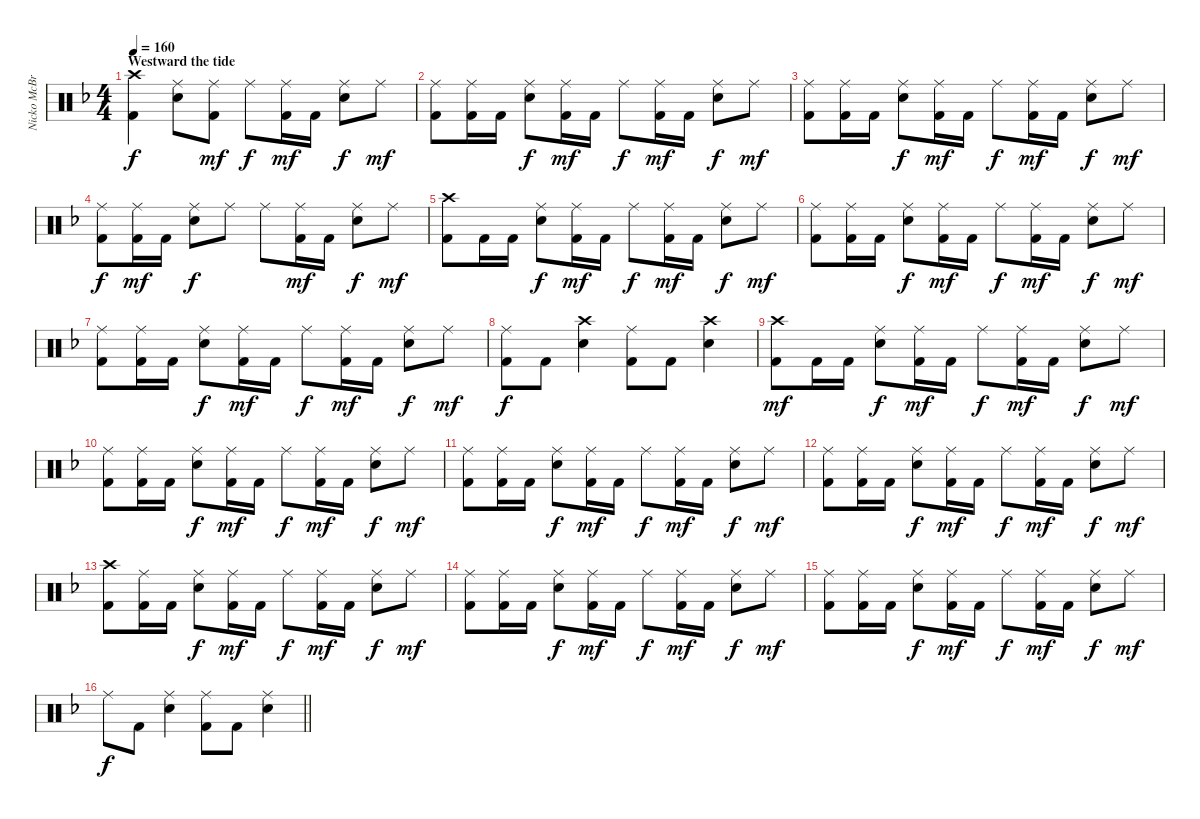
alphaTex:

\track ("Nicko McBrain" "Nicko McBr") {instrument percussion}
\staff {score}
\articulation defaults
\ts (4 4)
\section ("" "Westward the tide")
\tempo 160
\clef neutral
\ks f
("Crash high (hit)" "Kick (hit) 2").4{dy f} ("Ride (middle)" "Electric Snare (hit)").8 ("Ride (middle)" "Kick (hit) 2").8{dy mf} "Ride (middle)".8{dy f} ("Ride (middle)" "Kick (hit) 2").16{dy mf} "Kick (hit) 2".16 ("Ride (middle)" "Electric Snare (hit)").8{dy f} "Ride (middle)".8{dy mf} |
("Ride (middle)" "Kick (hit) 2").8 ("Ride (middle)" "Kick (hit) 2").16 "Kick (hit) 2".16 ("Ride (middle)" "Electric Snare (hit)").8{dy f} ("Ride (middle)" "Kick (hit) 2").16{dy mf} "Kick (hit) 2".16 "Ride (middle)".8{dy f} ("Ride (middle)" "Kick (hit) 2").16{dy mf} "Kick (hit) 2".16 ("Ride (middle)" "Electric Snare (hit)").8{dy f} "Ride (middle)".8{dy mf} |
("Ride (middle)" "Kick (hit) 2").8 ("Ride (middle)" "Kick (hit) 2").16 "Kick (hit) 2".16 ("Ride (middle)" "Electric Snare (hit)").8{dy f} ("Ride (middle)" "Kick (hit) 2").16{dy mf} "Kick (hit) 2".16 "Ride (middle)".8{dy f} ("Ride (middle)" "Kick (hit) 2").16{dy mf} "Kick (hit) 2".16 ("Ride (middle)" "Electric Snare (hit)").8{dy f} "Ride (middle)".8{dy mf} |
("Ride (middle)" "Kick (hit) 2").8{dy f} ("Ride (middle)" "Kick (hit) 2").16{dy mf} "Kick (hit) 2".16 ("Ride (middle)" "Electric Snare (hit)").8{dy f} "Ride (middle)".8 "Ride (middle)".8 ("Ride (middle)" "Kick (hit) 2").16{dy mf} "Kick (hit) 2".16 ("Ride (middle)" "Electric Snare (hit)").8{dy f} "Ride (middle)".8{dy mf} |
("Crash high (hit)" "Kick (hit) 2").8 "Kick (hit) 2".16 "Kick (hit) 2".16 ("Ride (middle)" "Electric Snare (hit)").8{dy f} ("Ride (middle)" "Kick (hit) 2").16{dy mf} "Kick (hit) 2".16 "Ride (middle)".8{dy f} ("Ride (middle)" "Kick (hit) 2").16{dy mf} "Kick (hit) 2".16 ("Ride (middle)" "Electric Snare (hit)").8{dy f} "Ride (middle)".8{dy mf} |
("Ride (middle)" "Kick (hit) 2").8 ("Ride (middle)" "Kick (hit) 2").16 "Kick (hit) 2".16 ("Ride (middle)" "Electric Snare (hit)").8{dy f} ("Ride (middle)" "Kick (hit) 2").16{dy mf} "Kick (hit) 2".16 "Ride (middle)".8{dy f} ("Ride (middle)" "Kick (hit) 2").16{dy mf} "Kick (hit) 2".16 ("Ride (middle)" "Electric Snare (hit)").8{dy f} "Ride (middle)".8{dy mf} |
("Ride (middle)" "Kick (hit) 2").8 ("Ride (middle)" "Kick (hit) 2").16 "Kick (hit) 2".16 ("Ride (middle)" "Electric Snare (hit)").8{dy f} ("Ride (middle)" "Kick (hit) 2").16{dy mf} "Kick (hit) 2".16 "Ride (middle)".8{dy f} ("Ride (middle)" "Kick (hit) 2").16{dy mf} "Kick (hit) 2".16 ("Ride (middle)" "Electric Snare (hit)").8{dy f} "Ride (middle)".8{dy mf} |
("Ride (middle)" "Kick (hit) 2").8{dy f} "Kick (hit) 2".8 ("Crash high (hit)" "Electric Snare (hit)").4 ("Ride (middle)" "Kick (hit) 2").8 "Kick (hit) 2".8 ("Crash high (hit)" "Electric Snare (hit)").4 |
("Crash high (hit)" "Kick (hit) 2").8{dy mf} "Kick (hit) 2".16 "Kick (hit) 2".16 ("Ride (middle)" "Electric Snare (hit)").8{dy f} ("Ride (middle)" "Kick (hit) 2").16{dy mf} "Kick (hit) 2".16 "Ride (middle)".8{dy f} ("Ride (middle)" "Kick (hit) 2").16{dy mf} "Kick (hit) 2".16 ("Ride (middle)" "Electric Snare (hit)").8{dy f} "Ride (middle)".8{dy mf} |
("Ride (middle)" "Kick (hit) 2").8 ("Ride (middle)" "Kick (hit) 2").16 "Kick (hit) 2".16 ("Ride (middle)" "Electric Snare (hit)").8{dy f} ("Ride (middle)" "Kick (hit) 2").16{dy mf} "Kick (hit) 2".16 "Ride (middle)".8{dy f} ("Ride (middle)" "Kick (hit) 2").16{dy mf} "Kick (hit) 2".16 ("Ride (middle)" "Electric Snare (hit)").8{dy f} "Ride (middle)".8{dy mf} |
("Ride (middle)" "Kick (hit) 2").8 ("Ride (middle)" "Kick (hit) 2").16 "Kick (hit) 2".16 ("Ride (middle)" "Electric Snare (hit)").8{dy f} ("Ride (middle)" "Kick (hit) 2").16{dy mf} "Kick (hit) 2".16 "Ride (middle)".8{dy f} ("Ride (middle)" "Kick (hit) 2").16{dy mf} "Kick (hit) 2".16 ("Ride (middle)" "Electric Snare (hit)").8{dy f} "Ride (middle)".8{dy mf} |
("Ride (middle)" "Kick (hit) 2").8 ("Ride (middle)" "Kick (hit) 2").16 "Kick (hit) 2".16 ("Ride (middle)" "Electric Snare (hit)").8{dy f} ("Ride (middle)" "Kick (hit) 2").16{dy mf} "Kick (hit) 2".16 "Ride (middle)".8{dy f} ("Ride (middle)" "Kick (hit) 2").16{dy mf} "Kick (hit) 2".16 ("Ride (middle)" "Electric Snare (hit)").8{dy f} "Ride (middle)".8{dy mf} |
("Crash high (hit)" "Kick (hit) 2").8 ("Ride (middle)" "Kick (hit) 2").16 "Kick (hit) 2".16 ("Ride (middle)" "Electric Snare (hit)").8{dy f} ("Ride (middle)" "Kick (hit) 2").16{dy mf} "Kick (hit) 2".16 "Ride (middle)".8{dy f} ("Ride (middle)" "Kick (hit) 2").16{dy mf} "Kick (hit) 2".16 ("Ride (middle)" "Electric Snare (hit)").8{dy f} "Ride (middle)".8{dy mf} |
("Ride (middle)" "Kick (hit) 2").8 ("Ride (middle)" "Kick (hit) 2").16 "Kick (hit) 2".16 ("Ride (middle)" "Electric Snare (hit)").8{dy f} ("Ride (middle)" "Kick (hit) 2").16{dy mf} "Kick (hit) 2".16 "Ride (middle)".8{dy f} ("Ride (middle)" "Kick (hit) 2").16{dy mf} "Kick (hit) 2".16 ("Ride (middle)" "Electric Snare (hit)").8{dy f} "Ride (middle)".8{dy mf} |
("Ride (middle)" "Kick (hit) 2").8 ("Ride (middle)" "Kick (hit) 2").16 "Kick (hit) 2".16 ("Ride (middle)" "Electric Snare (hit)").8{dy f} ("Ride (middle)" "Kick (hit) 2").16{dy mf} "Kick (hit) 2".16 "Ride (middle)".8{dy f} ("Ride (middle)" "Kick (hit) 2").16{dy mf} "Kick (hit) 2".16 ("Ride (middle)" "Electric Snare (hit)").8{dy f} "Ride (middle)".8{dy mf} |
\barLineRight lightlight "Ride (middle)".8{dy f} "Kick (hit) 2".8
("Ride (middle)" "Electric Snare (hit)").4 ("Ride (middle)" "Kick (hit) 2").8 "Kick (hit) 2".8 ("Ride (middle)" "Electric Snare (hit)").4
